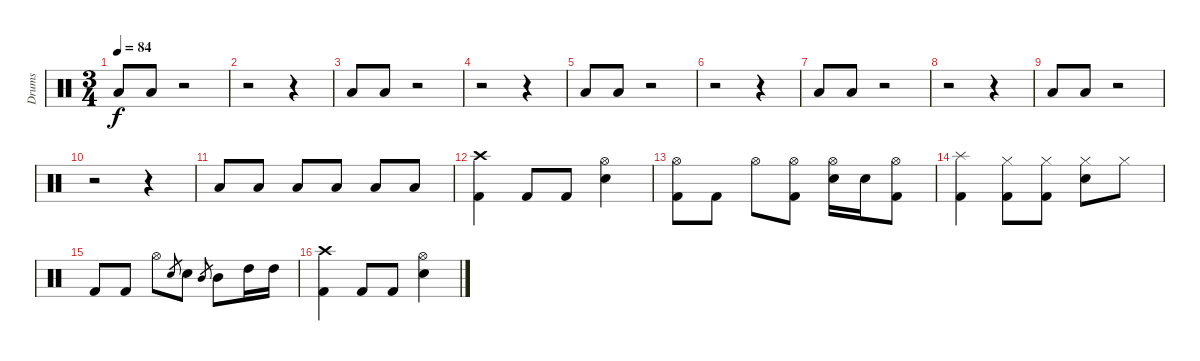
\track ("Drums" "Drums") {instrument percussion}
\staff {score}
\articulation defaults
\ts (3 4)
\tempo 84
\clef neutral
\ks c "Low Floor Tom (hit)".8{dy f} "Low Floor Tom (hit)".8
r.2 |
r.2 r.4 |
"Low Floor Tom (hit)".8 "Low Floor Tom (hit)".8 r.2 |
r.2 r.4 |
"Low Floor Tom (hit)".8 "Low Floor Tom (hit)".8 r.2 |
r.2 r.4 |
"Low Floor Tom (hit)".8 "Low Floor Tom (hit)".8 r.2 |
r.2 r.4 |
"Low Floor Tom (hit)".8 "Low Floor Tom (hit)".8 r.2 |
r.2 r.4 |
"Low Floor Tom (hit)".8 "Low Floor Tom (hit)".8 "Low Floor Tom (hit)".8 "Low Floor Tom (hit)".8 "Low Floor Tom (hit)".8 "Low Floor Tom (hit)".8 |
("Kick (hit) 2" "Crash high (hit)").4 "Kick (hit) 2".8 "Kick (hit) 2".8 ("Snare (hit) 2" "Hi-Hat (open)").4 |
("Kick (hit) 2" "Hi-Hat (open)").8 "Kick (hit) 2".8 "Hi-Hat (open)".8 ("Kick (hit) 2" "Hi-Hat (open)").8 ("Snare (hit) 2" "Hi-Hat (open)").16 "Snare (hit) 2".16 ("Kick (hit) 2" "Hi-Hat (open)").8 |
("Kick (hit) 2" "Splash (hit)").4 ("Kick (hit) 2" "Hi-Hat (closed)").8 ("Kick (hit) 2" "Hi-Hat (closed)").8 ("Snare (hit) 2" "Hi-Hat (closed)").8 "Hi-Hat (closed)".8 |
"Kick (hit) 2".8 "Kick (hit) 2".8 "Hi-Hat (open)".8 "Snare (hit) 2".8{gr} "Snare (hit) 2".8 "Mid Tom (hit)".8{gr} "Mid Tom (hit)".8 "High Tom (hit)".16 "High Tom (hit)".16 |
("Kick (hit) 2" "Crash high (hit)").4 "Kick (hit) 2".8 "Kick (hit) 2".8 ("Snare (hit) 2" "Hi-Hat (open)").4
